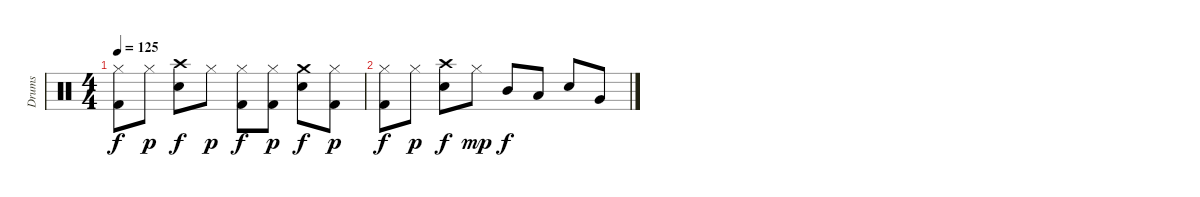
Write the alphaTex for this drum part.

\track ("Drums" "Drums") {instrument percussion}
\staff {score}
\articulation defaults
\ts (4 4)
\tempo 125
\clef neutral
\ks c
("Hi-Hat (closed)" "Kick (hit) 2").8{dy f} "Hi-Hat (closed)".8{dy p} ("Crash high (hit)" "Snare (hit) 2").8{dy f} "Hi-Hat (closed)".8{dy p} ("Hi-Hat (closed)" "Kick (hit) 2").8{dy f} ("Hi-Hat (closed)" "Kick (hit) 2").8{dy p} ("Crash medium (hit)" "Snare (hit) 2").8{dy f} ("Hi-Hat (closed)" "Kick (hit) 2").8{dy p} |
("Hi-Hat (closed)" "Kick (hit) 2").8{dy f} "Hi-Hat (closed)".8{dy p} ("Crash high (hit)" "Snare (hit) 2").8{dy f} "Hi-Hat (closed)".8{dy mp} "Mid Tom (hit)".8{dy f} "Low Tom (hit)".8 "Snare (hit) 2".8 "Very Low Tom (hit)".8
